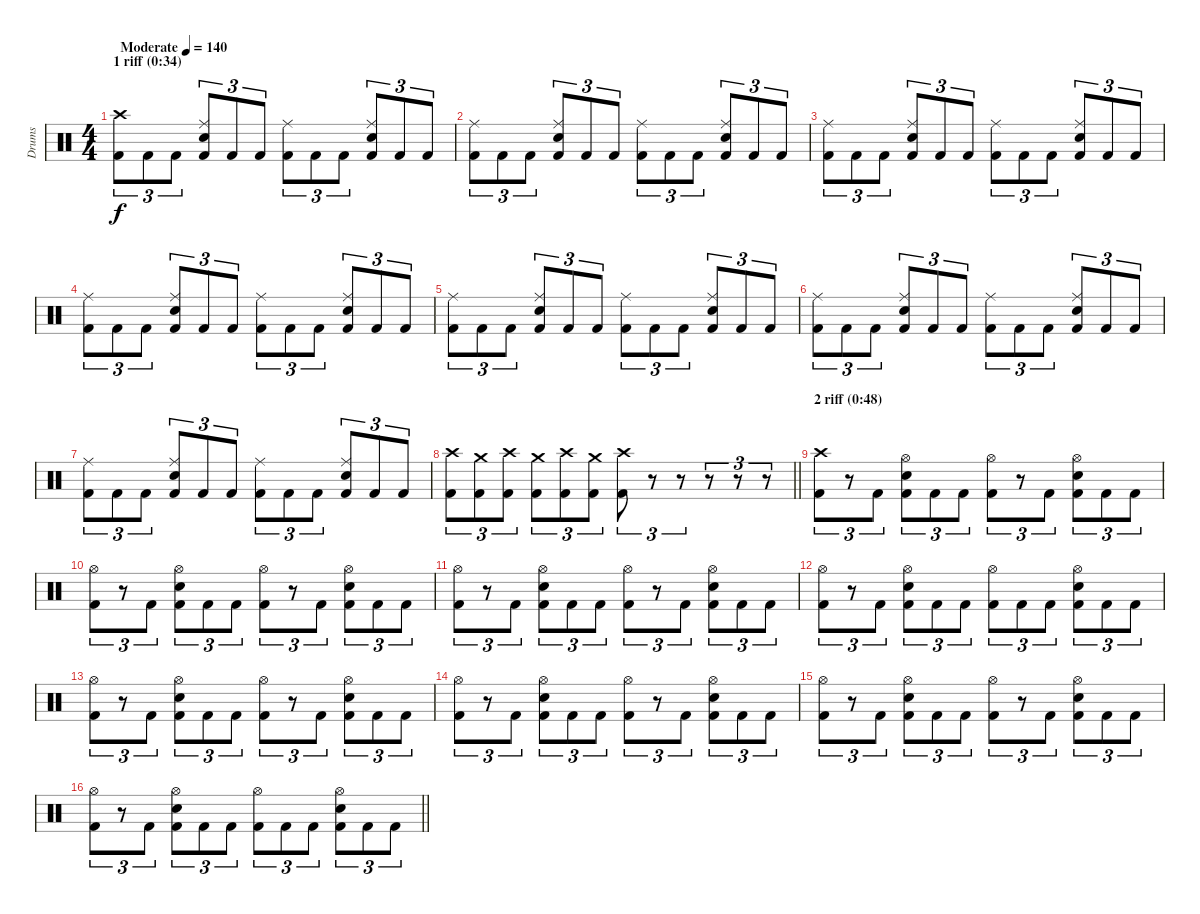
\track ("Drums" "Drums") {instrument percussion}
\staff {score}
\articulation defaults
\ts (4 4)
\section ("" "1 riff (0:34)")
\tempo (140 "Moderate")
\clef neutral
\ks c
("Crash high (hit)" "Kick (hit) 2").8{tu (3 2) dy f} "Kick (hit) 2".8{tu (3 2)} "Kick (hit) 2".8{tu (3 2)} ("Ride (middle)" "Snare (hit) 2" "Kick (hit) 2").8{tu (3 2)} "Kick (hit) 2".8{tu (3 2)} "Kick (hit) 2".8{tu (3 2)} ("Ride (middle)" "Kick (hit) 2").8{tu (3 2)} "Kick (hit) 2".8{tu (3 2)} "Kick (hit) 2".8{tu (3 2)} ("Ride (middle)" "Snare (hit) 2" "Kick (hit) 2").8{tu (3 2)} "Kick (hit) 2".8{tu (3 2)} "Kick (hit) 2".8{tu (3 2)} |
("Ride (middle)" "Kick (hit) 2").8{tu (3 2)} "Kick (hit) 2".8{tu (3 2)} "Kick (hit) 2".8{tu (3 2)} ("Ride (middle)" "Snare (hit) 2" "Kick (hit) 2").8{tu (3 2)} "Kick (hit) 2".8{tu (3 2)} "Kick (hit) 2".8{tu (3 2)} ("Ride (middle)" "Kick (hit) 2").8{tu (3 2)} "Kick (hit) 2".8{tu (3 2)} "Kick (hit) 2".8{tu (3 2)} ("Ride (middle)" "Snare (hit) 2" "Kick (hit) 2").8{tu (3 2)} "Kick (hit) 2".8{tu (3 2)} "Kick (hit) 2".8{tu (3 2)} |
("Ride (middle)" "Kick (hit) 2").8{tu (3 2)} "Kick (hit) 2".8{tu (3 2)} "Kick (hit) 2".8{tu (3 2)} ("Ride (middle)" "Snare (hit) 2" "Kick (hit) 2").8{tu (3 2)} "Kick (hit) 2".8{tu (3 2)} "Kick (hit) 2".8{tu (3 2)} ("Ride (middle)" "Kick (hit) 2").8{tu (3 2)} "Kick (hit) 2".8{tu (3 2)} "Kick (hit) 2".8{tu (3 2)} ("Ride (middle)" "Snare (hit) 2" "Kick (hit) 2").8{tu (3 2)} "Kick (hit) 2".8{tu (3 2)} "Kick (hit) 2".8{tu (3 2)} |
("Ride (middle)" "Kick (hit) 2").8{tu (3 2)} "Kick (hit) 2".8{tu (3 2)} "Kick (hit) 2".8{tu (3 2)} ("Ride (middle)" "Snare (hit) 2" "Kick (hit) 2").8{tu (3 2)} "Kick (hit) 2".8{tu (3 2)} "Kick (hit) 2".8{tu (3 2)} ("Ride (middle)" "Kick (hit) 2").8{tu (3 2)} "Kick (hit) 2".8{tu (3 2)} "Kick (hit) 2".8{tu (3 2)} ("Ride (middle)" "Snare (hit) 2" "Kick (hit) 2").8{tu (3 2)} "Kick (hit) 2".8{tu (3 2)} "Kick (hit) 2".8{tu (3 2)} |
("Ride (middle)" "Kick (hit) 2").8{tu (3 2)} "Kick (hit) 2".8{tu (3 2)} "Kick (hit) 2".8{tu (3 2)} ("Ride (middle)" "Snare (hit) 2" "Kick (hit) 2").8{tu (3 2)} "Kick (hit) 2".8{tu (3 2)} "Kick (hit) 2".8{tu (3 2)} ("Ride (middle)" "Kick (hit) 2").8{tu (3 2)} "Kick (hit) 2".8{tu (3 2)} "Kick (hit) 2".8{tu (3 2)} ("Ride (middle)" "Snare (hit) 2" "Kick (hit) 2").8{tu (3 2)} "Kick (hit) 2".8{tu (3 2)} "Kick (hit) 2".8{tu (3 2)} |
("Ride (middle)" "Kick (hit) 2").8{tu (3 2)} "Kick (hit) 2".8{tu (3 2)} "Kick (hit) 2".8{tu (3 2)} ("Ride (middle)" "Snare (hit) 2" "Kick (hit) 2").8{tu (3 2)} "Kick (hit) 2".8{tu (3 2)} "Kick (hit) 2".8{tu (3 2)} ("Ride (middle)" "Kick (hit) 2").8{tu (3 2)} "Kick (hit) 2".8{tu (3 2)} "Kick (hit) 2".8{tu (3 2)} ("Ride (middle)" "Snare (hit) 2" "Kick (hit) 2").8{tu (3 2)} "Kick (hit) 2".8{tu (3 2)} "Kick (hit) 2".8{tu (3 2)} |
("Ride (middle)" "Kick (hit) 2").8{tu (3 2)} "Kick (hit) 2".8{tu (3 2)} "Kick (hit) 2".8{tu (3 2)} ("Ride (middle)" "Snare (hit) 2" "Kick (hit) 2").8{tu (3 2)} "Kick (hit) 2".8{tu (3 2)} "Kick (hit) 2".8{tu (3 2)} ("Ride (middle)" "Kick (hit) 2").8{tu (3 2)} "Kick (hit) 2".8{tu (3 2)} "Kick (hit) 2".8{tu (3 2)} ("Ride (middle)" "Snare (hit) 2" "Kick (hit) 2").8{tu (3 2)} "Kick (hit) 2".8{tu (3 2)} "Kick (hit) 2".8{tu (3 2)} |
\barLineRight lightlight
("Crash high (hit)" "Kick (hit) 2").8{tu (3 2)} ("Crash medium (hit)" "Kick (hit) 2").8{tu (3 2)} ("Crash high (hit)" "Kick (hit) 2").8{tu (3 2)} ("Crash medium (hit)" "Kick (hit) 2").8{tu (3 2)} ("Crash high (hit)" "Kick (hit) 2").8{tu (3 2)} ("Crash medium (hit)" "Kick (hit) 2").8{tu (3 2)} ("Crash high (hit)" "Kick (hit) 2").8{tu (3 2)} r.8{tu (3 2)} r.8{tu (3 2)} r.8{tu (3 2)} r.8{tu (3 2)} r.8{tu (3 2)} |
\section ("" "2 riff (0:48)")
("Crash high (hit)" "Kick (hit) 2").8{tu (3 2)} r.8{tu (3 2)} "Kick (hit) 2".8{tu (3 2)} ("Hi-Hat (open)" "Snare (hit) 2" "Kick (hit) 2").8{tu (3 2)} "Kick (hit) 2".8{tu (3 2)} "Kick (hit) 2".8{tu (3 2)} ("Hi-Hat (open)" "Kick (hit) 2").8{tu (3 2)} r.8{tu (3 2)} "Kick (hit) 2".8{tu (3 2)} ("Hi-Hat (open)" "Snare (hit) 2" "Kick (hit) 2").8{tu (3 2)} "Kick (hit) 2".8{tu (3 2)} "Kick (hit) 2".8{tu (3 2)} |
("Hi-Hat (open)" "Kick (hit) 2").8{tu (3 2)} r.8{tu (3 2)} "Kick (hit) 2".8{tu (3 2)} ("Hi-Hat (open)" "Snare (hit) 2" "Kick (hit) 2").8{tu (3 2)} "Kick (hit) 2".8{tu (3 2)} "Kick (hit) 2".8{tu (3 2)} ("Hi-Hat (open)" "Kick (hit) 2").8{tu (3 2)} r.8{tu (3 2)} "Kick (hit) 2".8{tu (3 2)} ("Hi-Hat (open)" "Snare (hit) 2" "Kick (hit) 2").8{tu (3 2)} "Kick (hit) 2".8{tu (3 2)} "Kick (hit) 2".8{tu (3 2)} |
("Hi-Hat (open)" "Kick (hit) 2").8{tu (3 2)} r.8{tu (3 2)} "Kick (hit) 2".8{tu (3 2)} ("Hi-Hat (open)" "Snare (hit) 2" "Kick (hit) 2").8{tu (3 2)} "Kick (hit) 2".8{tu (3 2)} "Kick (hit) 2".8{tu (3 2)} ("Hi-Hat (open)" "Kick (hit) 2").8{tu (3 2)} r.8{tu (3 2)} "Kick (hit) 2".8{tu (3 2)} ("Hi-Hat (open)" "Snare (hit) 2" "Kick (hit) 2").8{tu (3 2)} "Kick (hit) 2".8{tu (3 2)} "Kick (hit) 2".8{tu (3 2)} |
("Hi-Hat (open)" "Kick (hit) 2").8{tu (3 2)} r.8{tu (3 2)} "Kick (hit) 2".8{tu (3 2)} ("Hi-Hat (open)" "Snare (hit) 2" "Kick (hit) 2").8{tu (3 2)} "Kick (hit) 2".8{tu (3 2)} "Kick (hit) 2".8{tu (3 2)} ("Hi-Hat (open)" "Kick (hit) 2").8{tu (3 2)} "Kick (hit) 2".8{tu (3 2)} "Kick (hit) 2".8{tu (3 2)} ("Hi-Hat (open)" "Snare (hit) 2" "Kick (hit) 2").8{tu (3 2)} "Kick (hit) 2".8{tu (3 2)} "Kick (hit) 2".8{tu (3 2)} |
("Hi-Hat (open)" "Kick (hit) 2").8{tu (3 2)} r.8{tu (3 2)} "Kick (hit) 2".8{tu (3 2)} ("Hi-Hat (open)" "Snare (hit) 2" "Kick (hit) 2").8{tu (3 2)} "Kick (hit) 2".8{tu (3 2)} "Kick (hit) 2".8{tu (3 2)} ("Hi-Hat (open)" "Kick (hit) 2").8{tu (3 2)} r.8{tu (3 2)} "Kick (hit) 2".8{tu (3 2)} ("Hi-Hat (open)" "Snare (hit) 2" "Kick (hit) 2").8{tu (3 2)} "Kick (hit) 2".8{tu (3 2)} "Kick (hit) 2".8{tu (3 2)} |
("Hi-Hat (open)" "Kick (hit) 2").8{tu (3 2)} r.8{tu (3 2)} "Kick (hit) 2".8{tu (3 2)} ("Hi-Hat (open)" "Snare (hit) 2" "Kick (hit) 2").8{tu (3 2)} "Kick (hit) 2".8{tu (3 2)} "Kick (hit) 2".8{tu (3 2)} ("Hi-Hat (open)" "Kick (hit) 2").8{tu (3 2)} r.8{tu (3 2)} "Kick (hit) 2".8{tu (3 2)} ("Hi-Hat (open)" "Snare (hit) 2" "Kick (hit) 2").8{tu (3 2)} "Kick (hit) 2".8{tu (3 2)} "Kick (hit) 2".8{tu (3 2)} |
("Hi-Hat (open)" "Kick (hit) 2").8{tu (3 2)} r.8{tu (3 2)} "Kick (hit) 2".8{tu (3 2)} ("Hi-Hat (open)" "Snare (hit) 2" "Kick (hit) 2").8{tu (3 2)} "Kick (hit) 2".8{tu (3 2)} "Kick (hit) 2".8{tu (3 2)} ("Hi-Hat (open)" "Kick (hit) 2").8{tu (3 2)} r.8{tu (3 2)} "Kick (hit) 2".8{tu (3 2)} ("Hi-Hat (open)" "Snare (hit) 2" "Kick (hit) 2").8{tu (3 2)} "Kick (hit) 2".8{tu (3 2)} "Kick (hit) 2".8{tu (3 2)} |
\barLineRight lightlight
("Hi-Hat (open)" "Kick (hit) 2").8{tu (3 2)} r.8{tu (3 2)} "Kick (hit) 2".8{tu (3 2)} ("Hi-Hat (open)" "Snare (hit) 2" "Kick (hit) 2").8{tu (3 2)} "Kick (hit) 2".8{tu (3 2)} "Kick (hit) 2".8{tu (3 2)} ("Hi-Hat (open)" "Kick (hit) 2").8{tu (3 2)} "Kick (hit) 2".8{tu (3 2)} "Kick (hit) 2".8{tu (3 2)} ("Hi-Hat (open)" "Snare (hit) 2" "Kick (hit) 2").8{tu (3 2)} "Kick (hit) 2".8{tu (3 2)} "Kick (hit) 2".8{tu (3 2)}
